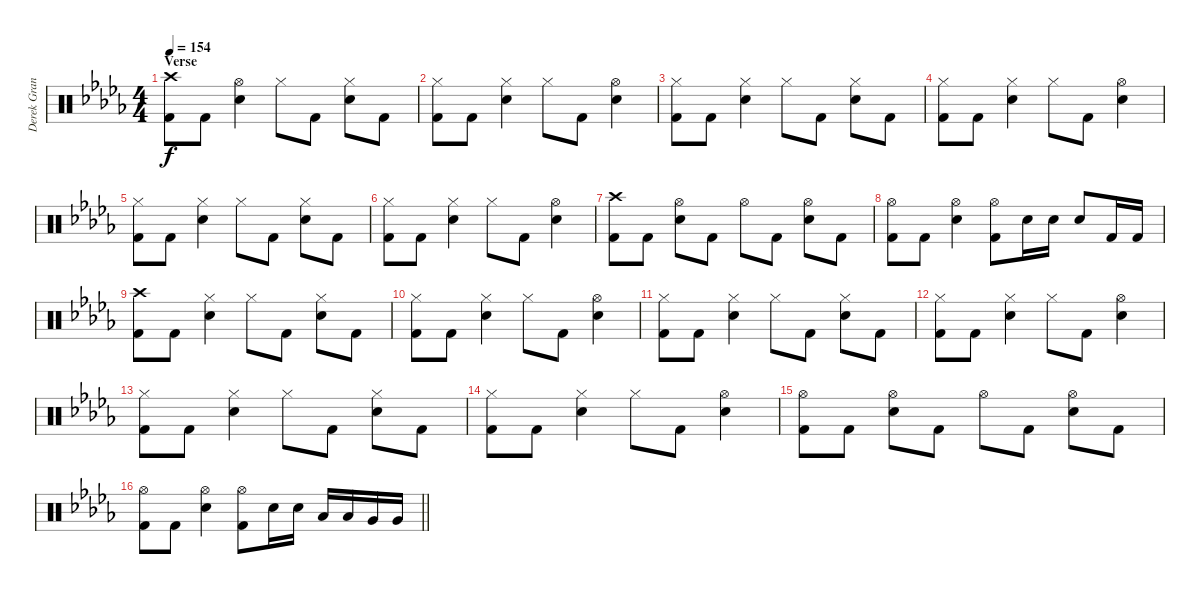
\track ("Derek Grant - Drums" "Derek Gran") {instrument percussion}
\staff {score}
\articulation defaults
\ts (4 4)
\section ("" "Verse")
\tempo 154
\clef neutral
\ks db
("Kick (hit) 2" "Crash high (hit)").8{dy f} "Kick (hit) 2".8 ("Snare (hit) 2" "Hi-Hat (open)").4 "Hi-Hat (closed)".8 "Kick (hit) 2".8 ("Snare (hit) 2" "Hi-Hat (closed)").8 "Kick (hit) 2".8 |
("Kick (hit) 2" "Hi-Hat (closed)").8 "Kick (hit) 2".8 ("Snare (hit) 2" "Hi-Hat (closed)").4 "Hi-Hat (closed)".8 "Kick (hit) 2".8 ("Snare (hit) 2" "Hi-Hat (open)").4 |
("Kick (hit) 2" "Hi-Hat (closed)").8 "Kick (hit) 2".8 ("Snare (hit) 2" "Hi-Hat (closed)").4 "Hi-Hat (closed)".8 "Kick (hit) 2".8 ("Snare (hit) 2" "Hi-Hat (closed)").8 "Kick (hit) 2".8 |
("Kick (hit) 2" "Hi-Hat (closed)").8 "Kick (hit) 2".8 ("Snare (hit) 2" "Hi-Hat (closed)").4 "Hi-Hat (closed)".8 "Kick (hit) 2".8 ("Snare (hit) 2" "Hi-Hat (open)").4 |
("Kick (hit) 2" "Hi-Hat (closed)").8 "Kick (hit) 2".8 ("Snare (hit) 2" "Hi-Hat (closed)").4 "Hi-Hat (closed)".8 "Kick (hit) 2".8 ("Snare (hit) 2" "Hi-Hat (closed)").8 "Kick (hit) 2".8 |
("Kick (hit) 2" "Hi-Hat (closed)").8 "Kick (hit) 2".8 ("Snare (hit) 2" "Hi-Hat (closed)").4 "Hi-Hat (closed)".8 "Kick (hit) 2".8 ("Snare (hit) 2" "Hi-Hat (open)").4 |
("Kick (hit) 2" "Crash high (hit)").8 "Kick (hit) 2".8 ("Snare (hit) 2" "Hi-Hat (open)").8 "Kick (hit) 2".8 "Hi-Hat (open)".8 "Kick (hit) 2".8 ("Snare (hit) 2" "Hi-Hat (open)").8 "Kick (hit) 2".8 |
("Kick (hit) 2" "Hi-Hat (open)").8 "Kick (hit) 2".8 ("Snare (hit) 2" "Hi-Hat (open)").4 ("Kick (hit) 2" "Hi-Hat (open)").8 "Snare (hit) 2".16 "Snare (hit) 2".16 "Snare (hit) 2".8 "Kick (hit) 2".16 "Kick (hit) 2".16 |
("Crash high (hit)" "Kick (hit) 2").8 "Kick (hit) 2".8 ("Snare (hit) 2" "Hi-Hat (closed)").4 "Hi-Hat (closed)".8 "Kick (hit) 2".8 ("Snare (hit) 2" "Hi-Hat (closed)").8 "Kick (hit) 2".8 |
("Hi-Hat (closed)" "Kick (hit) 2").8 "Kick (hit) 2".8 ("Snare (hit) 2" "Hi-Hat (closed)").4 "Hi-Hat (closed)".8 "Kick (hit) 2".8 ("Snare (hit) 2" "Hi-Hat (open)").4 |
("Hi-Hat (closed)" "Kick (hit) 2").8 "Kick (hit) 2".8 ("Snare (hit) 2" "Hi-Hat (closed)").4 "Hi-Hat (closed)".8 "Kick (hit) 2".8 ("Snare (hit) 2" "Hi-Hat (closed)").8 "Kick (hit) 2".8 |
("Hi-Hat (closed)" "Kick (hit) 2").8 "Kick (hit) 2".8 ("Snare (hit) 2" "Hi-Hat (closed)").4 "Hi-Hat (closed)".8 "Kick (hit) 2".8 ("Snare (hit) 2" "Hi-Hat (open)").4 |
("Hi-Hat (closed)" "Kick (hit) 2").8 "Kick (hit) 2".8 ("Snare (hit) 2" "Hi-Hat (closed)").4 "Hi-Hat (closed)".8 "Kick (hit) 2".8 ("Snare (hit) 2" "Hi-Hat (closed)").8 "Kick (hit) 2".8 |
("Hi-Hat (closed)" "Kick (hit) 2").8 "Kick (hit) 2".8 ("Snare (hit) 2" "Hi-Hat (closed)").4 "Hi-Hat (closed)".8 "Kick (hit) 2".8 ("Snare (hit) 2" "Hi-Hat (open)").4 |
("Kick (hit) 2" "Hi-Hat (open)").8 "Kick (hit) 2".8 ("Snare (hit) 2" "Hi-Hat (open)").8 "Kick (hit) 2".8 "Hi-Hat (open)".8 "Kick (hit) 2".8 ("Snare (hit) 2" "Hi-Hat (open)").8 "Kick (hit) 2".8 |
\barLineRight lightlight
("Kick (hit) 2" "Hi-Hat (open)").8 "Kick (hit) 2".8 ("Snare (hit) 2" "Hi-Hat (open)").4 ("Kick (hit) 2" "Hi-Hat (open)").8 "Snare (hit) 2".16 "Snare (hit) 2".16 "Low Tom (hit)".16 "Low Tom (hit)".16 "Very Low Tom (hit)".16 "Very Low Tom (hit)".16
